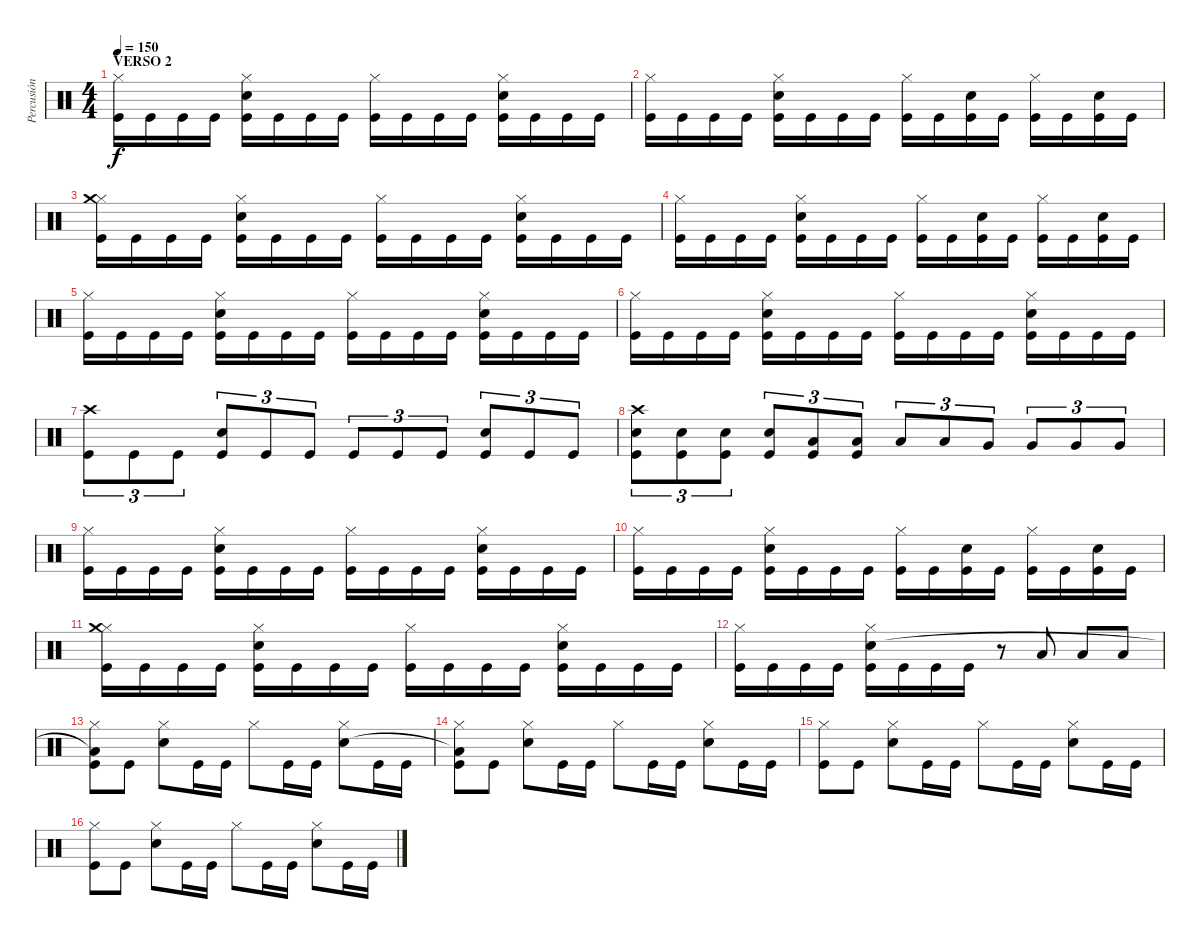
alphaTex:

\track ("Percusión" "Percusión") {instrument percussion}
\staff {score}
\articulation defaults
\ts (4 4)
\section ("" "VERSO 2")
\tempo 150
\clef neutral
\ks c
("Hi-Hat (closed)" "Kick (hit)").16{dy f} "Kick (hit)".16 "Kick (hit)".16 "Kick (hit)".16 ("Hi-Hat (closed)" "Snare (hit) 2" "Kick (hit)").16 "Kick (hit)".16 "Kick (hit)".16 "Kick (hit)".16 ("Hi-Hat (closed)" "Kick (hit)").16 "Kick (hit)".16 "Kick (hit)".16 "Kick (hit)".16 ("Hi-Hat (closed)" "Snare (hit) 2" "Kick (hit)").16 "Kick (hit)".16 "Kick (hit)".16 "Kick (hit)".16 |
("Hi-Hat (closed)" "Kick (hit)").16 "Kick (hit)".16 "Kick (hit)".16 "Kick (hit)".16 ("Hi-Hat (closed)" "Snare (hit) 2" "Kick (hit)").16 "Kick (hit)".16 "Kick (hit)".16 "Kick (hit)".16 ("Hi-Hat (closed)" "Kick (hit)").16 "Kick (hit)".16 ("Snare (hit) 2" "Kick (hit)").16 "Kick (hit)".16 ("Hi-Hat (closed)" "Kick (hit)").16 "Kick (hit)".16 ("Snare (hit) 2" "Kick (hit)").16 "Kick (hit)".16 |
("Hi-Hat (closed)" "Crash medium (hit)" "Kick (hit)").16 "Kick (hit)".16 "Kick (hit)".16 "Kick (hit)".16 ("Hi-Hat (closed)" "Snare (hit) 2" "Kick (hit)").16 "Kick (hit)".16 "Kick (hit)".16 "Kick (hit)".16 ("Hi-Hat (closed)" "Kick (hit)").16 "Kick (hit)".16 "Kick (hit)".16 "Kick (hit)".16 ("Hi-Hat (closed)" "Snare (hit) 2" "Kick (hit)").16 "Kick (hit)".16 "Kick (hit)".16 "Kick (hit)".16 |
("Hi-Hat (closed)" "Kick (hit)").16 "Kick (hit)".16 "Kick (hit)".16 "Kick (hit)".16 ("Hi-Hat (closed)" "Snare (hit) 2" "Kick (hit)").16 "Kick (hit)".16 "Kick (hit)".16 "Kick (hit)".16 ("Hi-Hat (closed)" "Kick (hit)").16 "Kick (hit)".16 ("Snare (hit) 2" "Kick (hit)").16 "Kick (hit)".16 ("Hi-Hat (closed)" "Kick (hit)").16 "Kick (hit)".16 ("Snare (hit) 2" "Kick (hit)").16 "Kick (hit)".16 |
("Hi-Hat (closed)" "Kick (hit)").16 "Kick (hit)".16 "Kick (hit)".16 "Kick (hit)".16 ("Hi-Hat (closed)" "Snare (hit) 2" "Kick (hit)").16 "Kick (hit)".16 "Kick (hit)".16 "Kick (hit)".16 ("Hi-Hat (closed)" "Kick (hit)").16 "Kick (hit)".16 "Kick (hit)".16 "Kick (hit)".16 ("Hi-Hat (closed)" "Snare (hit) 2" "Kick (hit)").16 "Kick (hit)".16 "Kick (hit)".16 "Kick (hit)".16 |
("Hi-Hat (closed)" "Kick (hit)").16 "Kick (hit)".16 "Kick (hit)".16 "Kick (hit)".16 ("Hi-Hat (closed)" "Snare (hit) 2" "Kick (hit)").16 "Kick (hit)".16 "Kick (hit)".16 "Kick (hit)".16 ("Hi-Hat (closed)" "Kick (hit)").16 "Kick (hit)".16 "Kick (hit)".16 "Kick (hit)".16 ("Hi-Hat (closed)" "Snare (hit) 2" "Kick (hit)").16 "Kick (hit)".16 "Kick (hit)".16 "Kick (hit)".16 |
("Crash high (hit)" "Kick (hit)").8{tu (3 2)} "Kick (hit)".8{tu (3 2)} "Kick (hit)".8{tu (3 2)} ("Snare (hit) 2" "Kick (hit)").8{tu (3 2)} "Kick (hit)".8{tu (3 2)} "Kick (hit)".8{tu (3 2)} "Kick (hit)".8{tu (3 2)} "Kick (hit)".8{tu (3 2)} "Kick (hit)".8{tu (3 2)} ("Snare (hit) 2" "Kick (hit)").8{tu (3 2)} "Kick (hit)".8{tu (3 2)} "Kick (hit)".8{tu (3 2)} |
("Crash high (hit)" "Snare (hit) 2" "Kick (hit)").8{tu (3 2)} ("Snare (hit) 2" "Kick (hit)").8{tu (3 2)} ("Snare (hit) 2" "Kick (hit)").8{tu (3 2)} ("Snare (hit) 2" "Kick (hit)").8{tu (3 2)} ("Low Tom (hit)" "Kick (hit)").8{tu (3 2)} ("Low Tom (hit)" "Kick (hit)").8{tu (3 2)} "Low Tom (hit)".8{tu (3 2)} "Low Tom (hit)".8{tu (3 2)} "Very Low Tom (hit)".8{tu (3 2)} "Very Low Tom (hit)".8{tu (3 2)} "Very Low Tom (hit)".8{tu (3 2)} "Very Low Tom (hit)".8{tu (3 2)} |
("Hi-Hat (closed)" "Kick (hit)").16 "Kick (hit)".16 "Kick (hit)".16 "Kick (hit)".16 ("Hi-Hat (closed)" "Snare (hit) 2" "Kick (hit)").16 "Kick (hit)".16 "Kick (hit)".16 "Kick (hit)".16 ("Hi-Hat (closed)" "Kick (hit)").16 "Kick (hit)".16 "Kick (hit)".16 "Kick (hit)".16 ("Hi-Hat (closed)" "Snare (hit) 2" "Kick (hit)").16 "Kick (hit)".16 "Kick (hit)".16 "Kick (hit)".16 |
("Hi-Hat (closed)" "Kick (hit)").16 "Kick (hit)".16 "Kick (hit)".16 "Kick (hit)".16 ("Hi-Hat (closed)" "Snare (hit) 2" "Kick (hit)").16 "Kick (hit)".16 "Kick (hit)".16 "Kick (hit)".16 ("Hi-Hat (closed)" "Kick (hit)").16 "Kick (hit)".16 ("Snare (hit) 2" "Kick (hit)").16 "Kick (hit)".16 ("Hi-Hat (closed)" "Kick (hit)").16 "Kick (hit)".16 ("Snare (hit) 2" "Kick (hit)").16 "Kick (hit)".16 |
("Hi-Hat (closed)" "Crash medium (hit)" "Kick (hit)").16 "Kick (hit)".16 "Kick (hit)".16 "Kick (hit)".16 ("Hi-Hat (closed)" "Snare (hit) 2" "Kick (hit)").16 "Kick (hit)".16 "Kick (hit)".16 "Kick (hit)".16 ("Hi-Hat (closed)" "Kick (hit)").16 "Kick (hit)".16 "Kick (hit)".16 "Kick (hit)".16 ("Hi-Hat (closed)" "Snare (hit) 2" "Kick (hit)").16 "Kick (hit)".16 "Kick (hit)".16 "Kick (hit)".16 |
("Hi-Hat (closed)" "Kick (hit)").16 "Kick (hit)".16 "Kick (hit)".16 "Kick (hit)".16 ("Hi-Hat (closed)" "Snare (hit) 2" "Kick (hit)").16 "Kick (hit)".16 "Kick (hit)".16 "Kick (hit)".16 r.8 "Low Tom (hit)".8 "Low Tom (hit)".8 "Low Tom (hit)".8 |
("Hi-Hat (closed)" "Low Tom (hit)"{t} "Kick (hit)").8 "Kick (hit)".8 ("Hi-Hat (closed)" "Snare (hit) 2").8 "Kick (hit)".16 "Kick (hit)".16 "Hi-Hat (closed)".8 "Kick (hit)".16 "Kick (hit)".16 ("Hi-Hat (closed)" "Snare (hit) 2").8 "Kick (hit)".16 "Kick (hit)".16 |
("Hi-Hat (closed)" "Low Tom (hit)"{t} "Kick (hit)").8 "Kick (hit)".8 ("Hi-Hat (closed)" "Snare (hit) 2").8 "Kick (hit)".16 "Kick (hit)".16 "Hi-Hat (closed)".8 "Kick (hit)".16 "Kick (hit)".16 ("Hi-Hat (closed)" "Snare (hit) 2").8 "Kick (hit)".16 "Kick (hit)".16 |
("Hi-Hat (closed)" "Kick (hit)").8 "Kick (hit)".8 ("Hi-Hat (closed)" "Snare (hit) 2").8 "Kick (hit)".16 "Kick (hit)".16 "Hi-Hat (closed)".8 "Kick (hit)".16 "Kick (hit)".16 ("Hi-Hat (closed)" "Snare (hit) 2").8 "Kick (hit)".16 "Kick (hit)".16 |
("Hi-Hat (closed)" "Kick (hit)").8 "Kick (hit)".8 ("Hi-Hat (closed)" "Snare (hit) 2").8 "Kick (hit)".16 "Kick (hit)".16 "Hi-Hat (closed)".8 "Kick (hit)".16 "Kick (hit)".16 ("Hi-Hat (closed)" "Snare (hit) 2").8 "Kick (hit)".16 "Kick (hit)".16
